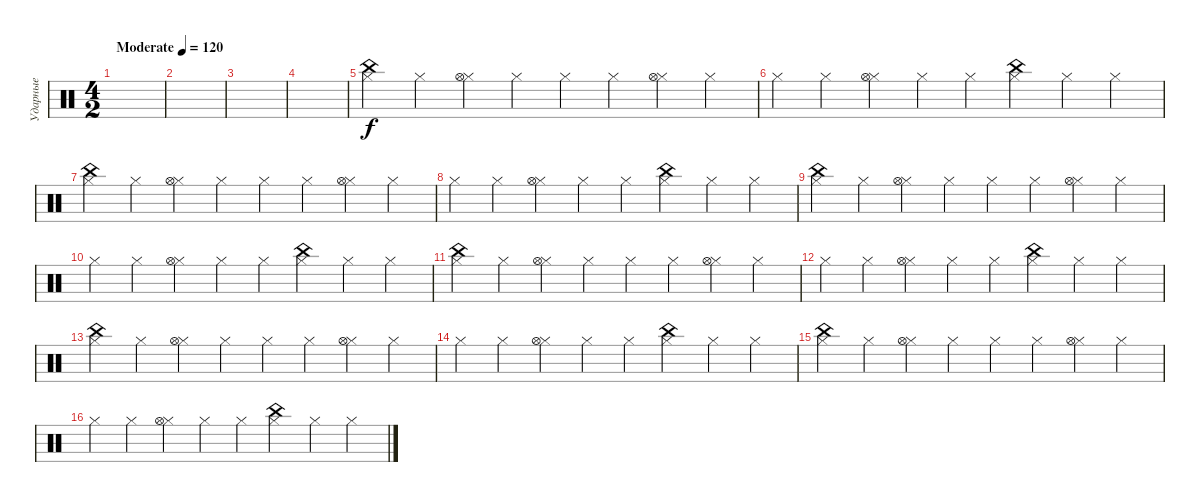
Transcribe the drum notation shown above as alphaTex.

\track ("Ударные" "Ударные") {instrument percussion}
\staff {score}
\articulation defaults
\ts (4 2)
\tempo (120 "Moderate")
\clef neutral
\ks c
|
|
|
|
("Hi-Hat (closed)" "China (hit)").4 "Hi-Hat (closed)".4 ("Hi-Hat (closed)" "Hi-Hat (open)").4 "Hi-Hat (closed)".4 "Hi-Hat (closed)".4 "Hi-Hat (closed)".4 ("Hi-Hat (closed)" "Hi-Hat (open)").4 "Hi-Hat (closed)".4 |
"Hi-Hat (closed)".4 "Hi-Hat (closed)".4 ("Hi-Hat (closed)" "Hi-Hat (open)").4 "Hi-Hat (closed)".4 "Hi-Hat (closed)".4 ("Hi-Hat (closed)" "China (hit)").4 "Hi-Hat (closed)".4 "Hi-Hat (closed)".4 |
("Hi-Hat (closed)" "China (hit)").4 "Hi-Hat (closed)".4 ("Hi-Hat (closed)" "Hi-Hat (open)").4 "Hi-Hat (closed)".4 "Hi-Hat (closed)".4 "Hi-Hat (closed)".4 ("Hi-Hat (closed)" "Hi-Hat (open)").4 "Hi-Hat (closed)".4 |
"Hi-Hat (closed)".4 "Hi-Hat (closed)".4 ("Hi-Hat (closed)" "Hi-Hat (open)").4 "Hi-Hat (closed)".4 "Hi-Hat (closed)".4 ("Hi-Hat (closed)" "China (hit)").4 "Hi-Hat (closed)".4 "Hi-Hat (closed)".4 |
("Hi-Hat (closed)" "China (hit)").4 "Hi-Hat (closed)".4 ("Hi-Hat (closed)" "Hi-Hat (open)").4 "Hi-Hat (closed)".4 "Hi-Hat (closed)".4 "Hi-Hat (closed)".4 ("Hi-Hat (closed)" "Hi-Hat (open)").4 "Hi-Hat (closed)".4 |
"Hi-Hat (closed)".4 "Hi-Hat (closed)".4 ("Hi-Hat (closed)" "Hi-Hat (open)").4 "Hi-Hat (closed)".4 "Hi-Hat (closed)".4 ("Hi-Hat (closed)" "China (hit)").4 "Hi-Hat (closed)".4 "Hi-Hat (closed)".4 |
("Hi-Hat (closed)" "China (hit)").4 "Hi-Hat (closed)".4 ("Hi-Hat (closed)" "Hi-Hat (open)").4 "Hi-Hat (closed)".4 "Hi-Hat (closed)".4 "Hi-Hat (closed)".4 ("Hi-Hat (closed)" "Hi-Hat (open)").4 "Hi-Hat (closed)".4 |
"Hi-Hat (closed)".4 "Hi-Hat (closed)".4 ("Hi-Hat (closed)" "Hi-Hat (open)").4 "Hi-Hat (closed)".4 "Hi-Hat (closed)".4 ("Hi-Hat (closed)" "China (hit)").4 "Hi-Hat (closed)".4 "Hi-Hat (closed)".4 |
("Hi-Hat (closed)" "China (hit)").4 "Hi-Hat (closed)".4 ("Hi-Hat (closed)" "Hi-Hat (open)").4 "Hi-Hat (closed)".4 "Hi-Hat (closed)".4 "Hi-Hat (closed)".4 ("Hi-Hat (closed)" "Hi-Hat (open)").4 "Hi-Hat (closed)".4 |
"Hi-Hat (closed)".4 "Hi-Hat (closed)".4 ("Hi-Hat (closed)" "Hi-Hat (open)").4 "Hi-Hat (closed)".4 "Hi-Hat (closed)".4 ("Hi-Hat (closed)" "China (hit)").4 "Hi-Hat (closed)".4 "Hi-Hat (closed)".4 |
("Hi-Hat (closed)" "China (hit)").4 "Hi-Hat (closed)".4 ("Hi-Hat (closed)" "Hi-Hat (open)").4 "Hi-Hat (closed)".4 "Hi-Hat (closed)".4 "Hi-Hat (closed)".4 ("Hi-Hat (closed)" "Hi-Hat (open)").4 "Hi-Hat (closed)".4 |
"Hi-Hat (closed)".4 "Hi-Hat (closed)".4 ("Hi-Hat (closed)" "Hi-Hat (open)").4 "Hi-Hat (closed)".4 "Hi-Hat (closed)".4 ("Hi-Hat (closed)" "China (hit)").4 "Hi-Hat (closed)".4 "Hi-Hat (closed)".4
